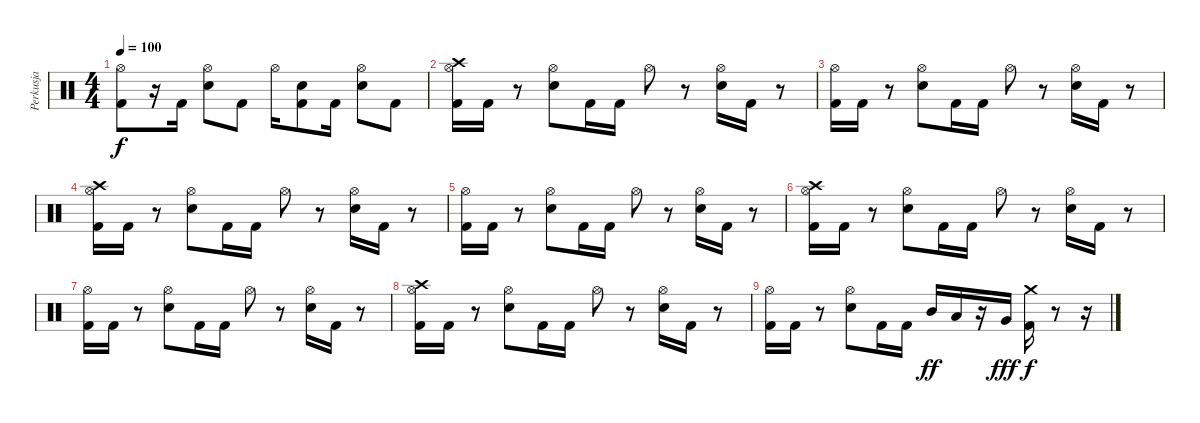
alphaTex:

\track ("Perkusja" "Perkusja") {instrument percussion}
\staff {score}
\articulation defaults
\ts (4 4)
\tempo 100
\clef neutral
\ks c
("Hi-Hat (open)" "Kick (hit) 2").8{dy f} r.16 "Kick (hit) 2".16 ("Hi-Hat (open)" "Snare (hit) 2").8 "Kick (hit) 2".8 "Hi-Hat (open)".16 ("Snare (hit) 2" "Kick (hit) 2").8 "Kick (hit) 2".16 ("Hi-Hat (open)" "Snare (hit) 2").8 "Kick (hit) 2".8 |
("Crash high (hit)" "Hi-Hat (open)" "Kick (hit) 2").16 "Kick (hit) 2".16 r.8 ("Hi-Hat (open)" "Snare (hit) 2").8 "Kick (hit) 2".16 "Kick (hit) 2".16 "Hi-Hat (open)".8 r.8 ("Hi-Hat (open)" "Snare (hit) 2").16 "Kick (hit) 2".16 r.8 |
("Hi-Hat (open)" "Kick (hit) 2").16 "Kick (hit) 2".16 r.8 ("Hi-Hat (open)" "Snare (hit) 2").8 "Kick (hit) 2".16 "Kick (hit) 2".16 "Hi-Hat (open)".8 r.8 ("Hi-Hat (open)" "Snare (hit) 2").16 "Kick (hit) 2".16 r.8 |
("Crash high (hit)" "Hi-Hat (open)" "Kick (hit) 2").16 "Kick (hit) 2".16 r.8 ("Hi-Hat (open)" "Snare (hit) 2").8 "Kick (hit) 2".16 "Kick (hit) 2".16 "Hi-Hat (open)".8 r.8 ("Hi-Hat (open)" "Snare (hit) 2").16 "Kick (hit) 2".16 r.8 |
("Hi-Hat (open)" "Kick (hit) 2").16 "Kick (hit) 2".16 r.8 ("Hi-Hat (open)" "Snare (hit) 2").8 "Kick (hit) 2".16 "Kick (hit) 2".16 "Hi-Hat (open)".8 r.8 ("Hi-Hat (open)" "Snare (hit) 2").16 "Kick (hit) 2".16 r.8 |
("Crash high (hit)" "Hi-Hat (open)" "Kick (hit) 2").16 "Kick (hit) 2".16 r.8 ("Hi-Hat (open)" "Snare (hit) 2").8 "Kick (hit) 2".16 "Kick (hit) 2".16 "Hi-Hat (open)".8 r.8 ("Hi-Hat (open)" "Snare (hit) 2").16 "Kick (hit) 2".16 r.8 |
("Hi-Hat (open)" "Kick (hit) 2").16 "Kick (hit) 2".16 r.8 ("Hi-Hat (open)" "Snare (hit) 2").8 "Kick (hit) 2".16 "Kick (hit) 2".16 "Hi-Hat (open)".8 r.8 ("Hi-Hat (open)" "Snare (hit) 2").16 "Kick (hit) 2".16 r.8 |
("Crash high (hit)" "Hi-Hat (open)" "Kick (hit) 2").16 "Kick (hit) 2".16 r.8 ("Hi-Hat (open)" "Snare (hit) 2").8 "Kick (hit) 2".16 "Kick (hit) 2".16 "Hi-Hat (open)".8 r.8 ("Hi-Hat (open)" "Snare (hit) 2").16 "Kick (hit) 2".16 r.8 |
("Hi-Hat (open)" "Kick (hit) 2").16 "Kick (hit) 2".16 r.8 ("Hi-Hat (open)" "Snare (hit) 2").8 "Kick (hit) 2".16 "Kick (hit) 2".16 "Mid Tom (hit)".16{dy ff} "Low Tom (hit)".16 r.16 "Very Low Tom (hit)".16{dy fff} ("Crash medium (hit)" "Kick (hit) 2").16{dy f} r.8 r.16
